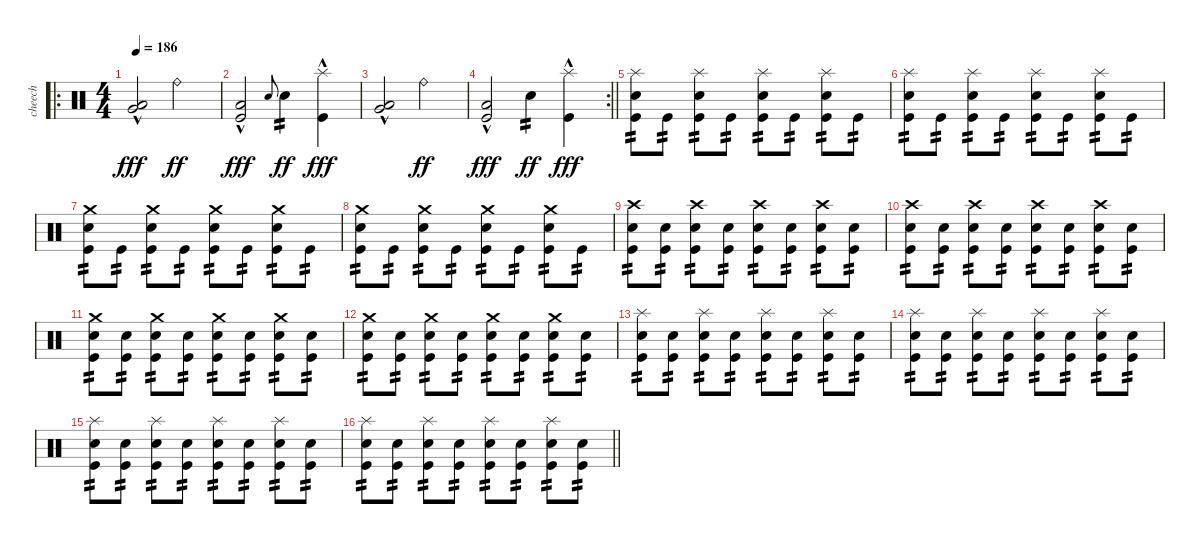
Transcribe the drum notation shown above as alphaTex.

\track ("cheech" "cheech") {instrument percussion}
\staff {score}
\articulation defaults
\ro
\ts (4 4)
\tempo 186
\clef neutral
\ks c
("Very Low Tom (hit)"{hac} "Low Floor Tom (hit)"{hac}).2{dy fff} "Ride (bell)".2{dy ff} |
("Low Floor Tom (hit)"{hac} "Kick (hit)"{hac}).2{dy fff} "Electric Snare (hit)"{h x}.8{gr onbeat} "Electric Snare (hit)".4{tp 2 dy ff} ("Splash (hit)" "Kick (hit)"{hac}).4{dy fff} |
("Very Low Tom (hit)"{hac} "Low Floor Tom (hit)"{hac}).2 "Ride (bell)".2{dy ff} |
\rc 2
\barLineRight lightlight
("Low Floor Tom (hit)"{hac} "Kick (hit)"{hac}).2{dy fff} "Electric Snare (hit)".4{tp 2 dy ff} ("Splash (hit)" "Kick (hit)"{hac}).4{dy fff} |
("Splash (hit)" "Electric Snare (hit)" "Kick (hit)").8{tp 2} "Kick (hit)".8{tp 2} ("Splash (hit)" "Electric Snare (hit)" "Kick (hit)").8{tp 2} "Kick (hit)".8{tp 2} ("Splash (hit)" "Electric Snare (hit)" "Kick (hit)").8{tp 2} "Kick (hit)".8{tp 2} ("Splash (hit)" "Electric Snare (hit)" "Kick (hit)").8{tp 2} "Kick (hit)".8{tp 2} |
("Splash (hit)" "Electric Snare (hit)" "Kick (hit)").8{tp 2} "Kick (hit)".8{tp 2} ("Splash (hit)" "Electric Snare (hit)" "Kick (hit)").8{tp 2} "Kick (hit)".8{tp 2} ("Splash (hit)" "Electric Snare (hit)" "Kick (hit)").8{tp 2} "Kick (hit)".8{tp 2} ("Splash (hit)" "Electric Snare (hit)" "Kick (hit)").8{tp 2} "Kick (hit)".8{tp 2} |
("Crash medium (hit)" "Electric Snare (hit)" "Kick (hit)").8{tp 2} "Kick (hit)".8{tp 2} ("Crash medium (hit)" "Electric Snare (hit)" "Kick (hit)").8{tp 2} "Kick (hit)".8{tp 2} ("Crash medium (hit)" "Electric Snare (hit)" "Kick (hit)").8{tp 2} "Kick (hit)".8{tp 2} ("Crash medium (hit)" "Electric Snare (hit)" "Kick (hit)").8{tp 2} "Kick (hit)".8{tp 2} |
("Crash medium (hit)" "Electric Snare (hit)" "Kick (hit)").8{tp 2} "Kick (hit)".8{tp 2} ("Crash medium (hit)" "Electric Snare (hit)" "Kick (hit)").8{tp 2} "Kick (hit)".8{tp 2} ("Crash medium (hit)" "Electric Snare (hit)" "Kick (hit)").8{tp 2} "Kick (hit)".8{tp 2} ("Crash medium (hit)" "Electric Snare (hit)" "Kick (hit)").8{tp 2} "Kick (hit)".8{tp 2} |
("Crash high (hit)" "Electric Snare (hit)" "Kick (hit)").8{tp 2} ("Electric Snare (hit)" "Kick (hit)").8{tp 2} ("Crash high (hit)" "Electric Snare (hit)" "Kick (hit)").8{tp 2} ("Electric Snare (hit)" "Kick (hit)").8{tp 2} ("Crash high (hit)" "Electric Snare (hit)" "Kick (hit)").8{tp 2} ("Electric Snare (hit)" "Kick (hit)").8{tp 2} ("Crash high (hit)" "Electric Snare (hit)" "Kick (hit)").8{tp 2} ("Electric Snare (hit)" "Kick (hit)").8{tp 2} |
("Crash high (hit)" "Electric Snare (hit)" "Kick (hit)").8{tp 2} ("Electric Snare (hit)" "Kick (hit)").8{tp 2} ("Crash high (hit)" "Electric Snare (hit)" "Kick (hit)").8{tp 2} ("Electric Snare (hit)" "Kick (hit)").8{tp 2} ("Crash high (hit)" "Electric Snare (hit)" "Kick (hit)").8{tp 2} ("Electric Snare (hit)" "Kick (hit)").8{tp 2} ("Crash high (hit)" "Electric Snare (hit)" "Kick (hit)").8{tp 2} ("Electric Snare (hit)" "Kick (hit)").8{tp 2} |
("Crash medium (hit)" "Electric Snare (hit)" "Kick (hit)").8{tp 2} ("Electric Snare (hit)" "Kick (hit)").8{tp 2} ("Crash medium (hit)" "Electric Snare (hit)" "Kick (hit)").8{tp 2} ("Electric Snare (hit)" "Kick (hit)").8{tp 2} ("Crash medium (hit)" "Electric Snare (hit)" "Kick (hit)").8{tp 2} ("Electric Snare (hit)" "Kick (hit)").8{tp 2} ("Crash medium (hit)" "Electric Snare (hit)" "Kick (hit)").8{tp 2} ("Electric Snare (hit)" "Kick (hit)").8{tp 2} |
("Crash medium (hit)" "Electric Snare (hit)" "Kick (hit)").8{tp 2} ("Electric Snare (hit)" "Kick (hit)").8{tp 2} ("Crash medium (hit)" "Electric Snare (hit)" "Kick (hit)").8{tp 2} ("Electric Snare (hit)" "Kick (hit)").8{tp 2} ("Crash medium (hit)" "Electric Snare (hit)" "Kick (hit)").8{tp 2} ("Electric Snare (hit)" "Kick (hit)").8{tp 2} ("Crash medium (hit)" "Electric Snare (hit)" "Kick (hit)").8{tp 2} ("Electric Snare (hit)" "Kick (hit)").8{tp 2} |
("Splash (hit)" "Electric Snare (hit)" "Kick (hit)").8{tp 2} ("Electric Snare (hit)" "Kick (hit)").8{tp 2} ("Splash (hit)" "Electric Snare (hit)" "Kick (hit)").8{tp 2} ("Electric Snare (hit)" "Kick (hit)").8{tp 2} ("Splash (hit)" "Electric Snare (hit)" "Kick (hit)").8{tp 2} ("Electric Snare (hit)" "Kick (hit)").8{tp 2} ("Splash (hit)" "Electric Snare (hit)" "Kick (hit)").8{tp 2} ("Electric Snare (hit)" "Kick (hit)").8{tp 2} |
("Splash (hit)" "Electric Snare (hit)" "Kick (hit)").8{tp 2} ("Electric Snare (hit)" "Kick (hit)").8{tp 2} ("Splash (hit)" "Electric Snare (hit)" "Kick (hit)").8{tp 2} ("Electric Snare (hit)" "Kick (hit)").8{tp 2} ("Splash (hit)" "Electric Snare (hit)" "Kick (hit)").8{tp 2} ("Electric Snare (hit)" "Kick (hit)").8{tp 2} ("Splash (hit)" "Electric Snare (hit)" "Kick (hit)").8{tp 2} ("Electric Snare (hit)" "Kick (hit)").8{tp 2} |
("Splash (hit)" "Electric Snare (hit)" "Kick (hit)").8{tp 2} ("Electric Snare (hit)" "Kick (hit)").8{tp 2} ("Splash (hit)" "Electric Snare (hit)" "Kick (hit)").8{tp 2} ("Electric Snare (hit)" "Kick (hit)").8{tp 2} ("Splash (hit)" "Electric Snare (hit)" "Kick (hit)").8{tp 2} ("Electric Snare (hit)" "Kick (hit)").8{tp 2} ("Splash (hit)" "Electric Snare (hit)" "Kick (hit)").8{tp 2} ("Electric Snare (hit)" "Kick (hit)").8{tp 2} |
\barLineRight lightlight
("Splash (hit)" "Electric Snare (hit)" "Kick (hit)").8{tp 2} ("Electric Snare (hit)" "Kick (hit)").8{tp 2} ("Splash (hit)" "Electric Snare (hit)" "Kick (hit)").8{tp 2} ("Electric Snare (hit)" "Kick (hit)").8{tp 2} ("Splash (hit)" "Electric Snare (hit)" "Kick (hit)").8{tp 2} ("Electric Snare (hit)" "Kick (hit)").8{tp 2} ("Splash (hit)" "Electric Snare (hit)" "Kick (hit)").8{tp 2} ("Electric Snare (hit)" "Kick (hit)").8{tp 2}
